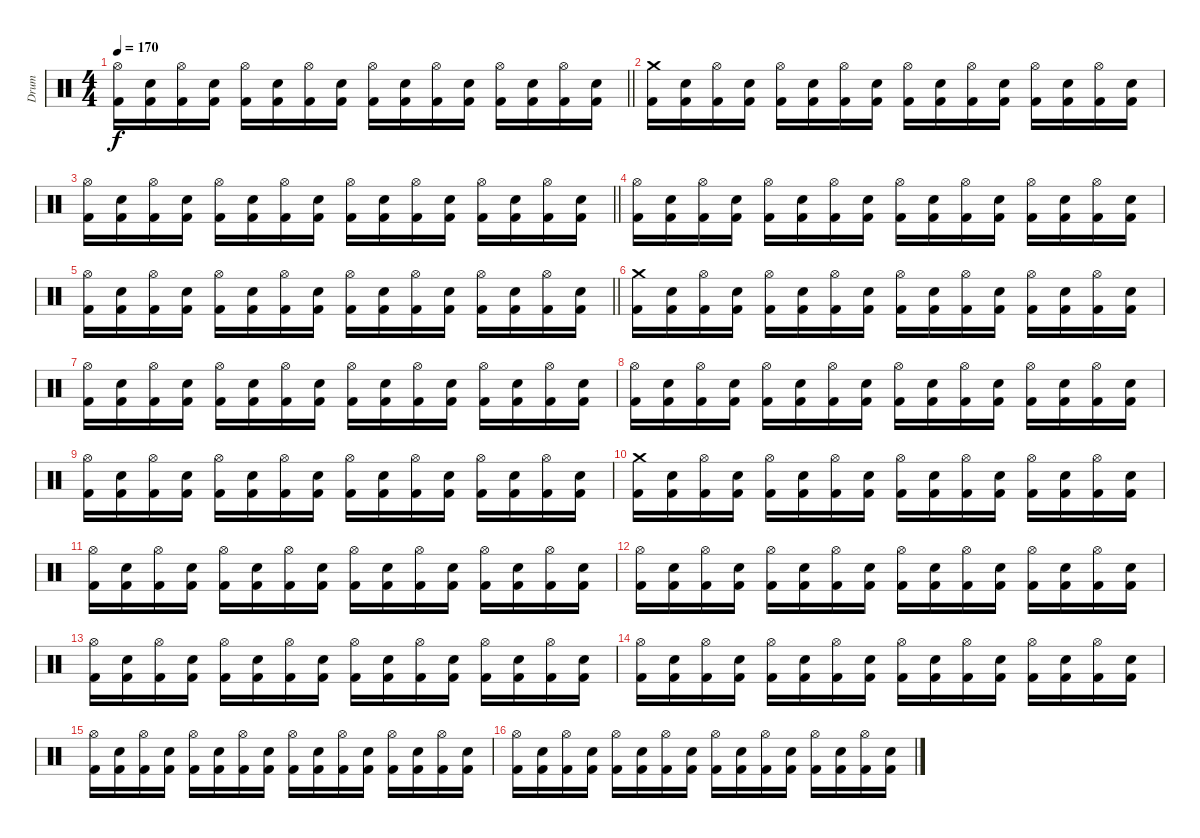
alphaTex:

\track ("Drum" "Drum") {instrument percussion}
\staff {score}
\articulation defaults
\ts (4 4)
\tempo 170
\clef neutral
\barLineRight lightlight
\ks c
("Hi-Hat (open)" "Kick (hit) 2").16{dy f} ("Snare (hit) 2" "Kick (hit) 2").16 ("Hi-Hat (open)" "Kick (hit) 2").16 ("Snare (hit) 2" "Kick (hit) 2").16 ("Hi-Hat (open)" "Kick (hit) 2").16 ("Snare (hit) 2" "Kick (hit) 2").16 ("Hi-Hat (open)" "Kick (hit) 2").16 ("Snare (hit) 2" "Kick (hit) 2").16 ("Hi-Hat (open)" "Kick (hit) 2").16 ("Snare (hit) 2" "Kick (hit) 2").16 ("Hi-Hat (open)" "Kick (hit) 2").16 ("Snare (hit) 2" "Kick (hit) 2").16 ("Hi-Hat (open)" "Kick (hit) 2").16 ("Snare (hit) 2" "Kick (hit) 2").16 ("Hi-Hat (open)" "Kick (hit) 2").16 ("Snare (hit) 2" "Kick (hit) 2").16 |
("Crash medium (hit)" "Kick (hit) 2").16 ("Snare (hit) 2" "Kick (hit) 2").16 ("Hi-Hat (open)" "Kick (hit) 2").16 ("Snare (hit) 2" "Kick (hit) 2").16 ("Hi-Hat (open)" "Kick (hit) 2").16 ("Snare (hit) 2" "Kick (hit) 2").16 ("Hi-Hat (open)" "Kick (hit) 2").16 ("Snare (hit) 2" "Kick (hit) 2").16 ("Hi-Hat (open)" "Kick (hit) 2").16 ("Snare (hit) 2" "Kick (hit) 2").16 ("Hi-Hat (open)" "Kick (hit) 2").16 ("Snare (hit) 2" "Kick (hit) 2").16 ("Hi-Hat (open)" "Kick (hit) 2").16 ("Snare (hit) 2" "Kick (hit) 2").16 ("Hi-Hat (open)" "Kick (hit) 2").16 ("Snare (hit) 2" "Kick (hit) 2").16 |
\barLineRight lightlight
("Hi-Hat (open)" "Kick (hit) 2").16 ("Snare (hit) 2" "Kick (hit) 2").16 ("Hi-Hat (open)" "Kick (hit) 2").16 ("Snare (hit) 2" "Kick (hit) 2").16 ("Hi-Hat (open)" "Kick (hit) 2").16 ("Snare (hit) 2" "Kick (hit) 2").16 ("Hi-Hat (open)" "Kick (hit) 2").16 ("Snare (hit) 2" "Kick (hit) 2").16 ("Hi-Hat (open)" "Kick (hit) 2").16 ("Snare (hit) 2" "Kick (hit) 2").16 ("Hi-Hat (open)" "Kick (hit) 2").16 ("Snare (hit) 2" "Kick (hit) 2").16 ("Hi-Hat (open)" "Kick (hit) 2").16 ("Snare (hit) 2" "Kick (hit) 2").16 ("Hi-Hat (open)" "Kick (hit) 2").16 ("Snare (hit) 2" "Kick (hit) 2").16 |
("Hi-Hat (open)" "Kick (hit) 2").16 ("Snare (hit) 2" "Kick (hit) 2").16 ("Hi-Hat (open)" "Kick (hit) 2").16 ("Snare (hit) 2" "Kick (hit) 2").16 ("Hi-Hat (open)" "Kick (hit) 2").16 ("Snare (hit) 2" "Kick (hit) 2").16 ("Hi-Hat (open)" "Kick (hit) 2").16 ("Snare (hit) 2" "Kick (hit) 2").16 ("Hi-Hat (open)" "Kick (hit) 2").16 ("Snare (hit) 2" "Kick (hit) 2").16 ("Hi-Hat (open)" "Kick (hit) 2").16 ("Snare (hit) 2" "Kick (hit) 2").16 ("Hi-Hat (open)" "Kick (hit) 2").16 ("Snare (hit) 2" "Kick (hit) 2").16 ("Hi-Hat (open)" "Kick (hit) 2").16 ("Snare (hit) 2" "Kick (hit) 2").16 |
\barLineRight lightlight
("Hi-Hat (open)" "Kick (hit) 2").16 ("Snare (hit) 2" "Kick (hit) 2").16 ("Hi-Hat (open)" "Kick (hit) 2").16 ("Snare (hit) 2" "Kick (hit) 2").16 ("Hi-Hat (open)" "Kick (hit) 2").16 ("Snare (hit) 2" "Kick (hit) 2").16 ("Hi-Hat (open)" "Kick (hit) 2").16 ("Snare (hit) 2" "Kick (hit) 2").16 ("Hi-Hat (open)" "Kick (hit) 2").16 ("Snare (hit) 2" "Kick (hit) 2").16 ("Hi-Hat (open)" "Kick (hit) 2").16 ("Snare (hit) 2" "Kick (hit) 2").16 ("Hi-Hat (open)" "Kick (hit) 2").16 ("Snare (hit) 2" "Kick (hit) 2").16 ("Hi-Hat (open)" "Kick (hit) 2").16 ("Snare (hit) 2" "Kick (hit) 2").16 |
("Crash medium (hit)" "Kick (hit) 2").16 ("Snare (hit) 2" "Kick (hit) 2").16 ("Hi-Hat (open)" "Kick (hit) 2").16 ("Snare (hit) 2" "Kick (hit) 2").16 ("Hi-Hat (open)" "Kick (hit) 2").16 ("Snare (hit) 2" "Kick (hit) 2").16 ("Hi-Hat (open)" "Kick (hit) 2").16 ("Snare (hit) 2" "Kick (hit) 2").16 ("Hi-Hat (open)" "Kick (hit) 2").16 ("Snare (hit) 2" "Kick (hit) 2").16 ("Hi-Hat (open)" "Kick (hit) 2").16 ("Snare (hit) 2" "Kick (hit) 2").16 ("Hi-Hat (open)" "Kick (hit) 2").16 ("Snare (hit) 2" "Kick (hit) 2").16 ("Hi-Hat (open)" "Kick (hit) 2").16 ("Snare (hit) 2" "Kick (hit) 2").16 |
("Hi-Hat (open)" "Kick (hit) 2").16 ("Snare (hit) 2" "Kick (hit) 2").16 ("Hi-Hat (open)" "Kick (hit) 2").16 ("Snare (hit) 2" "Kick (hit) 2").16 ("Hi-Hat (open)" "Kick (hit) 2").16 ("Snare (hit) 2" "Kick (hit) 2").16 ("Hi-Hat (open)" "Kick (hit) 2").16 ("Snare (hit) 2" "Kick (hit) 2").16 ("Hi-Hat (open)" "Kick (hit) 2").16 ("Snare (hit) 2" "Kick (hit) 2").16 ("Hi-Hat (open)" "Kick (hit) 2").16 ("Snare (hit) 2" "Kick (hit) 2").16 ("Hi-Hat (open)" "Kick (hit) 2").16 ("Snare (hit) 2" "Kick (hit) 2").16 ("Hi-Hat (open)" "Kick (hit) 2").16 ("Snare (hit) 2" "Kick (hit) 2").16 |
("Hi-Hat (open)" "Kick (hit) 2").16 ("Snare (hit) 2" "Kick (hit) 2").16 ("Hi-Hat (open)" "Kick (hit) 2").16 ("Snare (hit) 2" "Kick (hit) 2").16 ("Hi-Hat (open)" "Kick (hit) 2").16 ("Snare (hit) 2" "Kick (hit) 2").16 ("Hi-Hat (open)" "Kick (hit) 2").16 ("Snare (hit) 2" "Kick (hit) 2").16 ("Hi-Hat (open)" "Kick (hit) 2").16 ("Snare (hit) 2" "Kick (hit) 2").16 ("Hi-Hat (open)" "Kick (hit) 2").16 ("Snare (hit) 2" "Kick (hit) 2").16 ("Hi-Hat (open)" "Kick (hit) 2").16 ("Snare (hit) 2" "Kick (hit) 2").16 ("Hi-Hat (open)" "Kick (hit) 2").16 ("Snare (hit) 2" "Kick (hit) 2").16 |
("Hi-Hat (open)" "Kick (hit) 2").16 ("Snare (hit) 2" "Kick (hit) 2").16 ("Hi-Hat (open)" "Kick (hit) 2").16 ("Snare (hit) 2" "Kick (hit) 2").16 ("Hi-Hat (open)" "Kick (hit) 2").16 ("Snare (hit) 2" "Kick (hit) 2").16 ("Hi-Hat (open)" "Kick (hit) 2").16 ("Snare (hit) 2" "Kick (hit) 2").16 ("Hi-Hat (open)" "Kick (hit) 2").16 ("Snare (hit) 2" "Kick (hit) 2").16 ("Hi-Hat (open)" "Kick (hit) 2").16 ("Snare (hit) 2" "Kick (hit) 2").16 ("Hi-Hat (open)" "Kick (hit) 2").16 ("Snare (hit) 2" "Kick (hit) 2").16 ("Hi-Hat (open)" "Kick (hit) 2").16 ("Snare (hit) 2" "Kick (hit) 2").16 |
("Crash medium (hit)" "Kick (hit) 2").16 ("Snare (hit) 2" "Kick (hit) 2").16 ("Hi-Hat (open)" "Kick (hit) 2").16 ("Snare (hit) 2" "Kick (hit) 2").16 ("Hi-Hat (open)" "Kick (hit) 2").16 ("Snare (hit) 2" "Kick (hit) 2").16 ("Hi-Hat (open)" "Kick (hit) 2").16 ("Snare (hit) 2" "Kick (hit) 2").16 ("Hi-Hat (open)" "Kick (hit) 2").16 ("Snare (hit) 2" "Kick (hit) 2").16 ("Hi-Hat (open)" "Kick (hit) 2").16 ("Snare (hit) 2" "Kick (hit) 2").16 ("Hi-Hat (open)" "Kick (hit) 2").16 ("Snare (hit) 2" "Kick (hit) 2").16 ("Hi-Hat (open)" "Kick (hit) 2").16 ("Snare (hit) 2" "Kick (hit) 2").16 |
("Hi-Hat (open)" "Kick (hit) 2").16 ("Snare (hit) 2" "Kick (hit) 2").16 ("Hi-Hat (open)" "Kick (hit) 2").16 ("Snare (hit) 2" "Kick (hit) 2").16 ("Hi-Hat (open)" "Kick (hit) 2").16 ("Snare (hit) 2" "Kick (hit) 2").16 ("Hi-Hat (open)" "Kick (hit) 2").16 ("Snare (hit) 2" "Kick (hit) 2").16 ("Hi-Hat (open)" "Kick (hit) 2").16 ("Snare (hit) 2" "Kick (hit) 2").16 ("Hi-Hat (open)" "Kick (hit) 2").16 ("Snare (hit) 2" "Kick (hit) 2").16 ("Hi-Hat (open)" "Kick (hit) 2").16 ("Snare (hit) 2" "Kick (hit) 2").16 ("Hi-Hat (open)" "Kick (hit) 2").16 ("Snare (hit) 2" "Kick (hit) 2").16 |
("Hi-Hat (open)" "Kick (hit) 2").16 ("Snare (hit) 2" "Kick (hit) 2").16 ("Hi-Hat (open)" "Kick (hit) 2").16 ("Snare (hit) 2" "Kick (hit) 2").16 ("Hi-Hat (open)" "Kick (hit) 2").16 ("Snare (hit) 2" "Kick (hit) 2").16 ("Hi-Hat (open)" "Kick (hit) 2").16 ("Snare (hit) 2" "Kick (hit) 2").16 ("Hi-Hat (open)" "Kick (hit) 2").16 ("Snare (hit) 2" "Kick (hit) 2").16 ("Hi-Hat (open)" "Kick (hit) 2").16 ("Snare (hit) 2" "Kick (hit) 2").16 ("Hi-Hat (open)" "Kick (hit) 2").16 ("Snare (hit) 2" "Kick (hit) 2").16 ("Hi-Hat (open)" "Kick (hit) 2").16 ("Snare (hit) 2" "Kick (hit) 2").16 |
("Hi-Hat (open)" "Kick (hit) 2").16 ("Snare (hit) 2" "Kick (hit) 2").16 ("Hi-Hat (open)" "Kick (hit) 2").16 ("Snare (hit) 2" "Kick (hit) 2").16 ("Hi-Hat (open)" "Kick (hit) 2").16 ("Snare (hit) 2" "Kick (hit) 2").16 ("Hi-Hat (open)" "Kick (hit) 2").16 ("Snare (hit) 2" "Kick (hit) 2").16 ("Hi-Hat (open)" "Kick (hit) 2").16 ("Snare (hit) 2" "Kick (hit) 2").16 ("Hi-Hat (open)" "Kick (hit) 2").16 ("Snare (hit) 2" "Kick (hit) 2").16 ("Hi-Hat (open)" "Kick (hit) 2").16 ("Snare (hit) 2" "Kick (hit) 2").16 ("Hi-Hat (open)" "Kick (hit) 2").16 ("Snare (hit) 2" "Kick (hit) 2").16 |
("Hi-Hat (open)" "Kick (hit) 2").16 ("Snare (hit) 2" "Kick (hit) 2").16 ("Hi-Hat (open)" "Kick (hit) 2").16 ("Snare (hit) 2" "Kick (hit) 2").16 ("Hi-Hat (open)" "Kick (hit) 2").16 ("Snare (hit) 2" "Kick (hit) 2").16 ("Hi-Hat (open)" "Kick (hit) 2").16 ("Snare (hit) 2" "Kick (hit) 2").16 ("Hi-Hat (open)" "Kick (hit) 2").16 ("Snare (hit) 2" "Kick (hit) 2").16 ("Hi-Hat (open)" "Kick (hit) 2").16 ("Snare (hit) 2" "Kick (hit) 2").16 ("Hi-Hat (open)" "Kick (hit) 2").16 ("Snare (hit) 2" "Kick (hit) 2").16 ("Hi-Hat (open)" "Kick (hit) 2").16 ("Snare (hit) 2" "Kick (hit) 2").16 |
("Hi-Hat (open)" "Kick (hit) 2").16 ("Snare (hit) 2" "Kick (hit) 2").16 ("Hi-Hat (open)" "Kick (hit) 2").16 ("Snare (hit) 2" "Kick (hit) 2").16 ("Hi-Hat (open)" "Kick (hit) 2").16 ("Snare (hit) 2" "Kick (hit) 2").16 ("Hi-Hat (open)" "Kick (hit) 2").16 ("Snare (hit) 2" "Kick (hit) 2").16 ("Hi-Hat (open)" "Kick (hit) 2").16 ("Snare (hit) 2" "Kick (hit) 2").16 ("Hi-Hat (open)" "Kick (hit) 2").16 ("Snare (hit) 2" "Kick (hit) 2").16 ("Hi-Hat (open)" "Kick (hit) 2").16 ("Snare (hit) 2" "Kick (hit) 2").16 ("Hi-Hat (open)" "Kick (hit) 2").16 ("Snare (hit) 2" "Kick (hit) 2").16 |
("Hi-Hat (open)" "Kick (hit) 2").16 ("Snare (hit) 2" "Kick (hit) 2").16 ("Hi-Hat (open)" "Kick (hit) 2").16 ("Snare (hit) 2" "Kick (hit) 2").16 ("Hi-Hat (open)" "Kick (hit) 2").16 ("Snare (hit) 2" "Kick (hit) 2").16 ("Hi-Hat (open)" "Kick (hit) 2").16 ("Snare (hit) 2" "Kick (hit) 2").16 ("Hi-Hat (open)" "Kick (hit) 2").16 ("Snare (hit) 2" "Kick (hit) 2").16 ("Hi-Hat (open)" "Kick (hit) 2").16 ("Snare (hit) 2" "Kick (hit) 2").16 ("Hi-Hat (open)" "Kick (hit) 2").16 ("Snare (hit) 2" "Kick (hit) 2").16 ("Hi-Hat (open)" "Kick (hit) 2").16 ("Snare (hit) 2" "Kick (hit) 2").16
